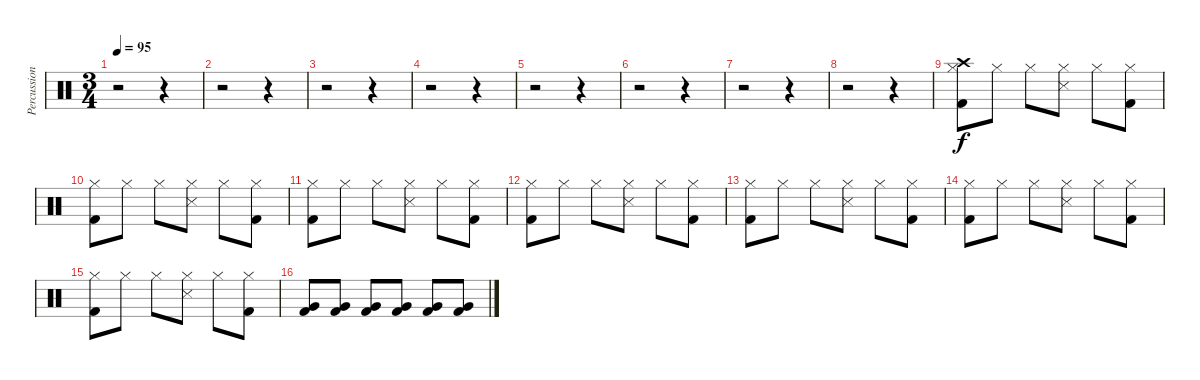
\track ("Percussion" "Percussion") {instrument percussion}
\staff {score}
\articulation defaults
\ts (3 4)
\tempo 95
\clef neutral
\ks c
r.2{dy f} r.4 |
r.2 r.4 |
r.2 r.4 |
r.2 r.4 |
r.2 r.4 |
r.2 r.4 |
r.2 r.4 |
r.2 r.4 |
("Crash high (hit)" "Hi-Hat (closed)" "Kick (hit) 2").8 "Hi-Hat (closed)".8 "Hi-Hat (closed)".8 ("Hi-Hat (closed)" "Snare (side stick) 3").8 "Hi-Hat (closed)".8 ("Hi-Hat (closed)" "Kick (hit) 2").8 |
("Hi-Hat (closed)" "Kick (hit) 2").8 "Hi-Hat (closed)".8 "Hi-Hat (closed)".8 ("Hi-Hat (closed)" "Snare (side stick) 3").8 "Hi-Hat (closed)".8 ("Hi-Hat (closed)" "Kick (hit) 2").8 |
("Hi-Hat (closed)" "Kick (hit) 2").8 "Hi-Hat (closed)".8 "Hi-Hat (closed)".8 ("Hi-Hat (closed)" "Snare (side stick) 3").8 "Hi-Hat (closed)".8 ("Hi-Hat (closed)" "Kick (hit) 2").8 |
("Hi-Hat (closed)" "Kick (hit) 2").8 "Hi-Hat (closed)".8 "Hi-Hat (closed)".8 ("Hi-Hat (closed)" "Snare (side stick) 3").8 "Hi-Hat (closed)".8 ("Hi-Hat (closed)" "Kick (hit) 2").8 |
("Hi-Hat (closed)" "Kick (hit) 2").8 "Hi-Hat (closed)".8 "Hi-Hat (closed)".8 ("Hi-Hat (closed)" "Snare (side stick) 3").8 "Hi-Hat (closed)".8 ("Hi-Hat (closed)" "Kick (hit) 2").8 |
("Hi-Hat (closed)" "Kick (hit) 2").8 "Hi-Hat (closed)".8 "Hi-Hat (closed)".8 ("Hi-Hat (closed)" "Snare (side stick) 3").8 "Hi-Hat (closed)".8 ("Hi-Hat (closed)" "Kick (hit) 2").8 |
("Hi-Hat (closed)" "Kick (hit) 2").8 "Hi-Hat (closed)".8 "Hi-Hat (closed)".8 ("Hi-Hat (closed)" "Snare (side stick) 3").8 "Hi-Hat (closed)".8 ("Hi-Hat (closed)" "Kick (hit) 2").8 |
("Very Low Tom (hit)" "Kick (hit) 2").8 ("Very Low Tom (hit)" "Kick (hit) 2").8 ("Very Low Tom (hit)" "Kick (hit) 2").8 ("Very Low Tom (hit)" "Kick (hit) 2").8 ("Very Low Tom (hit)" "Kick (hit) 2").8 ("Very Low Tom (hit)" "Kick (hit) 2").8
